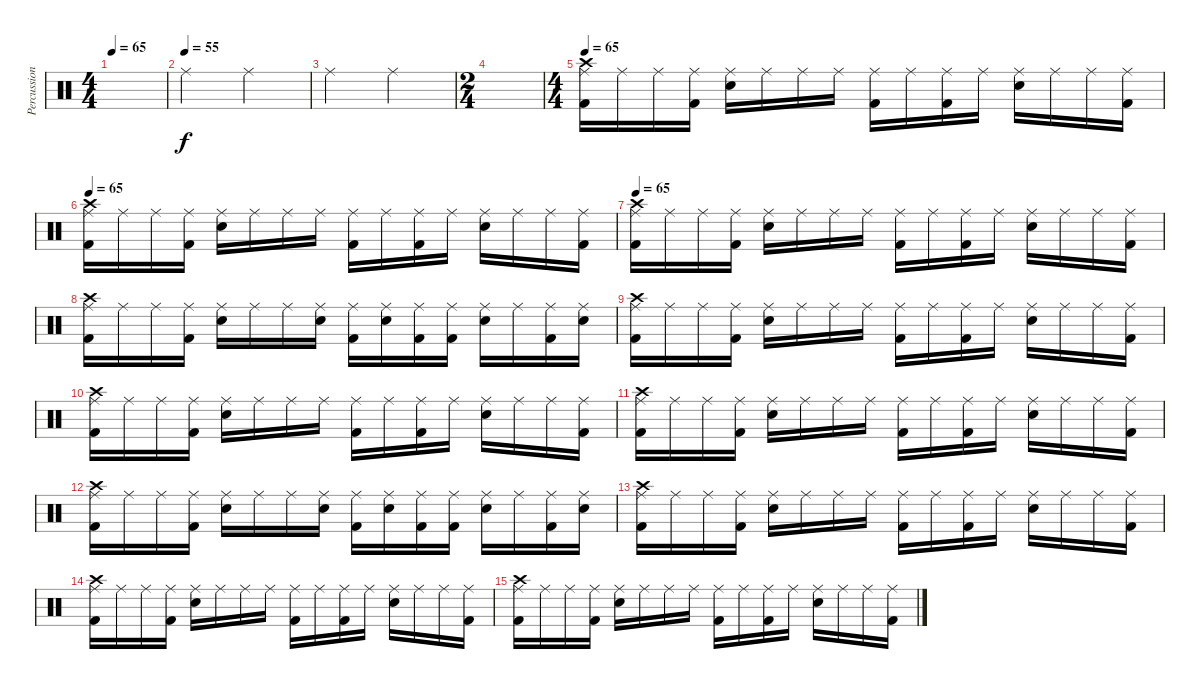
\track ("Percussioni" "Percussion") {instrument percussion}
\staff {score}
\articulation defaults
\ts (4 4)
\tempo 65
\clef neutral
\ks c
|
\tempo (55)
"Ride (middle)".2 "Ride (middle)".2 |
"Ride (middle)".2 "Ride (middle)".2 |
\ts (2 4)
|
\ts (4 4)
\tempo 65
("Ride (middle)" "Crash high (hit)" "Kick (hit) 2").16 "Ride (middle)".16 "Ride (middle)".16 ("Ride (middle)" "Kick (hit) 2").16 ("Ride (middle)" "Snare (hit) 2").16 "Ride (middle)".16 "Ride (middle)".16 "Ride (middle)".16 ("Ride (middle)" "Kick (hit) 2").16 "Ride (middle)".16 ("Ride (middle)" "Kick (hit) 2").16 "Ride (middle)".16 ("Ride (middle)" "Snare (hit) 2").16 "Ride (middle)".16 "Ride (middle)".16 ("Ride (middle)" "Kick (hit) 2").16 |
\tempo 65
("Ride (middle)" "Crash high (hit)" "Kick (hit) 2").16 "Ride (middle)".16 "Ride (middle)".16 ("Ride (middle)" "Kick (hit) 2").16 ("Ride (middle)" "Snare (hit) 2").16 "Ride (middle)".16 "Ride (middle)".16 "Ride (middle)".16 ("Ride (middle)" "Kick (hit) 2").16 "Ride (middle)".16 ("Ride (middle)" "Kick (hit) 2").16 "Ride (middle)".16 ("Ride (middle)" "Snare (hit) 2").16 "Ride (middle)".16 "Ride (middle)".16 ("Ride (middle)" "Kick (hit) 2").16 |
\tempo 65
("Ride (middle)" "Crash high (hit)" "Kick (hit) 2").16 "Ride (middle)".16 "Ride (middle)".16 ("Ride (middle)" "Kick (hit) 2").16 ("Ride (middle)" "Snare (hit) 2").16 "Ride (middle)".16 "Ride (middle)".16 "Ride (middle)".16 ("Ride (middle)" "Kick (hit) 2").16 "Ride (middle)".16 ("Ride (middle)" "Kick (hit) 2").16 "Ride (middle)".16 ("Ride (middle)" "Snare (hit) 2").16 "Ride (middle)".16 "Ride (middle)".16 ("Ride (middle)" "Kick (hit) 2").16 |
("Ride (middle)" "Crash high (hit)" "Kick (hit) 2").16 "Ride (middle)".16 "Ride (middle)".16 ("Ride (middle)" "Kick (hit) 2").16 ("Ride (middle)" "Snare (hit) 2").16 "Ride (middle)".16 "Ride (middle)".16 ("Ride (middle)" "Snare (hit) 2").16 ("Ride (middle)" "Kick (hit) 2").16 ("Ride (middle)" "Snare (hit) 2").16 ("Ride (middle)" "Kick (hit) 2").16 ("Ride (middle)" "Kick (hit) 2").16 ("Ride (middle)" "Snare (hit) 2").16 "Ride (middle)".16 ("Ride (middle)" "Kick (hit) 2").16 ("Ride (middle)" "Snare (hit) 2").16 |
("Ride (middle)" "Crash high (hit)" "Kick (hit) 2").16 "Ride (middle)".16 "Ride (middle)".16 ("Ride (middle)" "Kick (hit) 2").16 ("Ride (middle)" "Snare (hit) 2").16 "Ride (middle)".16 "Ride (middle)".16 "Ride (middle)".16 ("Ride (middle)" "Kick (hit) 2").16 "Ride (middle)".16 ("Ride (middle)" "Kick (hit) 2").16 "Ride (middle)".16 ("Ride (middle)" "Snare (hit) 2").16 "Ride (middle)".16 "Ride (middle)".16 ("Ride (middle)" "Kick (hit) 2").16 |
("Ride (middle)" "Crash high (hit)" "Kick (hit) 2").16 "Ride (middle)".16 "Ride (middle)".16 ("Ride (middle)" "Kick (hit) 2").16 ("Ride (middle)" "Snare (hit) 2").16 "Ride (middle)".16 "Ride (middle)".16 "Ride (middle)".16 ("Ride (middle)" "Kick (hit) 2").16 "Ride (middle)".16 ("Ride (middle)" "Kick (hit) 2").16 "Ride (middle)".16 ("Ride (middle)" "Snare (hit) 2").16 "Ride (middle)".16 "Ride (middle)".16 ("Ride (middle)" "Kick (hit) 2").16 |
("Ride (middle)" "Crash high (hit)" "Kick (hit) 2").16 "Ride (middle)".16 "Ride (middle)".16 ("Ride (middle)" "Kick (hit) 2").16 ("Ride (middle)" "Snare (hit) 2").16 "Ride (middle)".16 "Ride (middle)".16 "Ride (middle)".16 ("Ride (middle)" "Kick (hit) 2").16 "Ride (middle)".16 ("Ride (middle)" "Kick (hit) 2").16 "Ride (middle)".16 ("Ride (middle)" "Snare (hit) 2").16 "Ride (middle)".16 "Ride (middle)".16 ("Ride (middle)" "Kick (hit) 2").16 |
("Ride (middle)" "Crash high (hit)" "Kick (hit) 2").16 "Ride (middle)".16 "Ride (middle)".16 ("Ride (middle)" "Kick (hit) 2").16 ("Ride (middle)" "Snare (hit) 2").16 "Ride (middle)".16 "Ride (middle)".16 ("Ride (middle)" "Snare (hit) 2").16 ("Ride (middle)" "Kick (hit) 2").16 ("Ride (middle)" "Snare (hit) 2").16 ("Ride (middle)" "Kick (hit) 2").16 ("Ride (middle)" "Kick (hit) 2").16 ("Ride (middle)" "Snare (hit) 2").16 "Ride (middle)".16 ("Ride (middle)" "Kick (hit) 2").16 ("Ride (middle)" "Snare (hit) 2").16 |
("Ride (middle)" "Crash high (hit)" "Kick (hit) 2").16 "Ride (middle)".16 "Ride (middle)".16 ("Ride (middle)" "Kick (hit) 2").16 ("Ride (middle)" "Snare (hit) 2").16 "Ride (middle)".16 "Ride (middle)".16 "Ride (middle)".16 ("Ride (middle)" "Kick (hit) 2").16 "Ride (middle)".16 ("Ride (middle)" "Kick (hit) 2").16 "Ride (middle)".16 ("Ride (middle)" "Snare (hit) 2").16 "Ride (middle)".16 "Ride (middle)".16 ("Ride (middle)" "Kick (hit) 2").16 |
("Ride (middle)" "Crash high (hit)" "Kick (hit) 2").16 "Ride (middle)".16 "Ride (middle)".16 ("Ride (middle)" "Kick (hit) 2").16 ("Ride (middle)" "Snare (hit) 2").16 "Ride (middle)".16 "Ride (middle)".16 "Ride (middle)".16 ("Ride (middle)" "Kick (hit) 2").16 "Ride (middle)".16 ("Ride (middle)" "Kick (hit) 2").16 "Ride (middle)".16 ("Ride (middle)" "Snare (hit) 2").16 "Ride (middle)".16 "Ride (middle)".16 ("Ride (middle)" "Kick (hit) 2").16 |
("Ride (middle)" "Crash high (hit)" "Kick (hit) 2").16 "Ride (middle)".16 "Ride (middle)".16 ("Ride (middle)" "Kick (hit) 2").16 ("Ride (middle)" "Snare (hit) 2").16 "Ride (middle)".16 "Ride (middle)".16 "Ride (middle)".16 ("Ride (middle)" "Kick (hit) 2").16 "Ride (middle)".16 ("Ride (middle)" "Kick (hit) 2").16 "Ride (middle)".16 ("Ride (middle)" "Snare (hit) 2").16 "Ride (middle)".16 "Ride (middle)".16 ("Ride (middle)" "Kick (hit) 2").16
